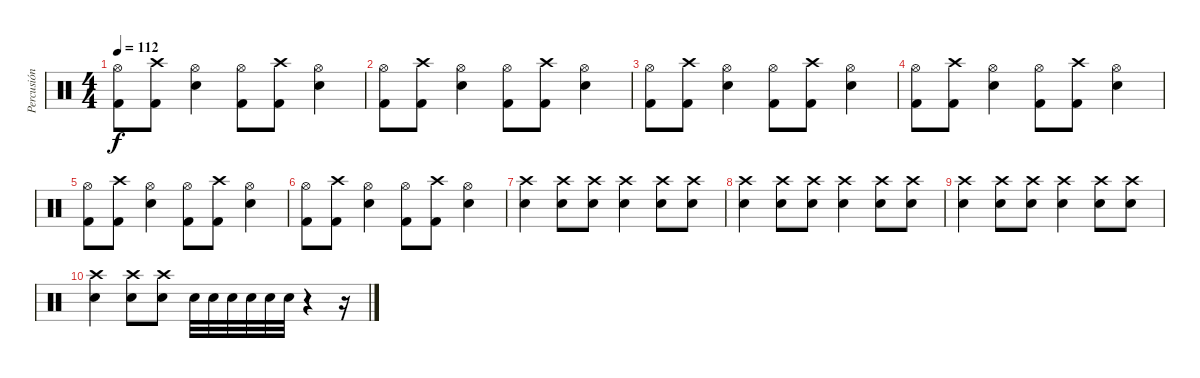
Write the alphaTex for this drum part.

\track ("Percusión" "Percusión") {instrument percussion}
\staff {score}
\articulation defaults
\ts (4 4)
\tempo 112
\clef neutral
\ks c
("Hi-Hat (open)" "Kick (hit) 2").8{dy f} ("Crash high (hit)" "Kick (hit) 2").8 ("Hi-Hat (open)" "Snare (hit) 2").4 ("Hi-Hat (open)" "Kick (hit) 2").8 ("Crash high (hit)" "Kick (hit) 2").8 ("Hi-Hat (open)" "Snare (hit) 2").4 |
("Hi-Hat (open)" "Kick (hit) 2").8 ("Crash high (hit)" "Kick (hit) 2").8 ("Hi-Hat (open)" "Snare (hit) 2").4 ("Hi-Hat (open)" "Kick (hit) 2").8 ("Crash high (hit)" "Kick (hit) 2").8 ("Hi-Hat (open)" "Snare (hit) 2").4 |
("Hi-Hat (open)" "Kick (hit) 2").8 ("Crash high (hit)" "Kick (hit) 2").8 ("Hi-Hat (open)" "Snare (hit) 2").4 ("Hi-Hat (open)" "Kick (hit) 2").8 ("Crash high (hit)" "Kick (hit) 2").8 ("Hi-Hat (open)" "Snare (hit) 2").4 |
("Hi-Hat (open)" "Kick (hit) 2").8 ("Crash high (hit)" "Kick (hit) 2").8 ("Hi-Hat (open)" "Snare (hit) 2").4 ("Hi-Hat (open)" "Kick (hit) 2").8 ("Crash high (hit)" "Kick (hit) 2").8 ("Hi-Hat (open)" "Snare (hit) 2").4 |
("Hi-Hat (open)" "Kick (hit) 2").8 ("Crash high (hit)" "Kick (hit) 2").8 ("Hi-Hat (open)" "Snare (hit) 2").4 ("Hi-Hat (open)" "Kick (hit) 2").8 ("Crash high (hit)" "Kick (hit) 2").8 ("Hi-Hat (open)" "Snare (hit) 2").4 |
("Hi-Hat (open)" "Kick (hit) 2").8 ("Crash high (hit)" "Kick (hit) 2").8 ("Hi-Hat (open)" "Snare (hit) 2").4 ("Hi-Hat (open)" "Kick (hit) 2").8 ("Crash high (hit)" "Kick (hit) 2").8 ("Hi-Hat (open)" "Snare (hit) 2").4 |
("Crash high (hit)" "Snare (hit) 2").4 ("Crash high (hit)" "Snare (hit) 2").8 ("Crash high (hit)" "Snare (hit) 2").8 ("Crash high (hit)" "Snare (hit) 2").4 ("Crash high (hit)" "Snare (hit) 2").8 ("Crash high (hit)" "Snare (hit) 2").8 |
("Crash high (hit)" "Snare (hit) 2").4 ("Crash high (hit)" "Snare (hit) 2").8 ("Crash high (hit)" "Snare (hit) 2").8 ("Crash high (hit)" "Snare (hit) 2").4 ("Crash high (hit)" "Snare (hit) 2").8 ("Crash high (hit)" "Snare (hit) 2").8 |
("Crash high (hit)" "Snare (hit) 2").4 ("Crash high (hit)" "Snare (hit) 2").8 ("Crash high (hit)" "Snare (hit) 2").8 ("Crash high (hit)" "Snare (hit) 2").4 ("Crash high (hit)" "Snare (hit) 2").8 ("Crash high (hit)" "Snare (hit) 2").8 |
("Crash high (hit)" "Snare (hit) 2").4 ("Crash high (hit)" "Snare (hit) 2").8 ("Crash high (hit)" "Snare (hit) 2").8 "Snare (hit) 2".32 "Snare (hit) 2".32 "Snare (hit) 2".32 "Snare (hit) 2".32 "Snare (hit) 2".32 "Snare (hit) 2".32 r.4 r.16
